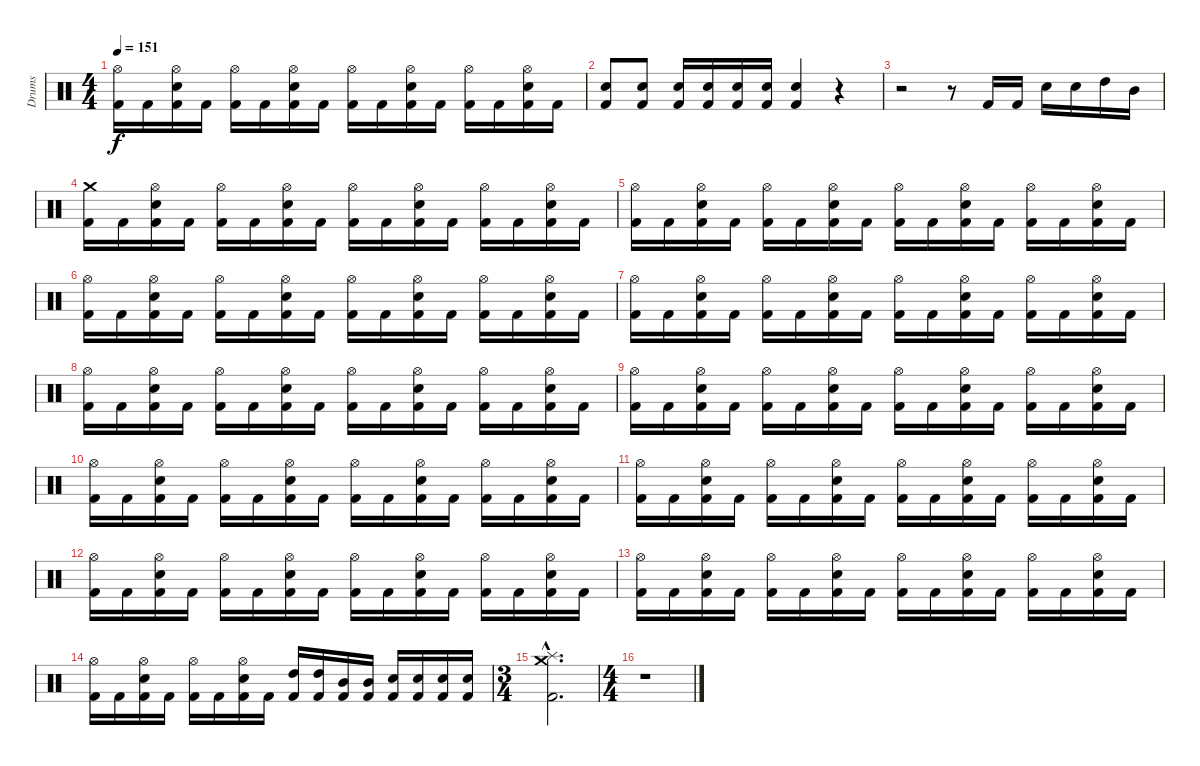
\track ("Drums" "Drums") {instrument percussion}
\staff {score}
\articulation defaults
\ts (4 4)
\tempo 151
\clef neutral
\ks c
("Kick (hit) 2" "Hi-Hat (open)").16{dy f} "Kick (hit) 2".16 ("Kick (hit) 2" "Snare (hit) 2" "Hi-Hat (open)").16 "Kick (hit) 2".16 ("Kick (hit) 2" "Hi-Hat (open)").16 "Kick (hit) 2".16 ("Kick (hit) 2" "Snare (hit) 2" "Hi-Hat (open)").16 "Kick (hit) 2".16 ("Kick (hit) 2" "Hi-Hat (open)").16 "Kick (hit) 2".16 ("Kick (hit) 2" "Snare (hit) 2" "Hi-Hat (open)").16 "Kick (hit) 2".16 ("Kick (hit) 2" "Hi-Hat (open)").16 "Kick (hit) 2".16 ("Kick (hit) 2" "Snare (hit) 2" "Hi-Hat (open)").16 "Kick (hit) 2".16 |
("Kick (hit) 2" "Snare (hit) 2").8 ("Kick (hit) 2" "Snare (hit) 2").8 ("Kick (hit) 2" "Snare (hit) 2").16 ("Kick (hit) 2" "Snare (hit) 2").16 ("Kick (hit) 2" "Snare (hit) 2").16 ("Kick (hit) 2" "Snare (hit) 2").16 ("Kick (hit) 2" "Snare (hit) 2").4 r.4 |
r.2 r.8 "Kick (hit) 2".16 "Kick (hit) 2".16 "Snare (hit) 2".16 "Snare (hit) 2".16 "High Tom (hit)".16 "Mid Tom (hit)".16 |
\section ("" "")
("Kick (hit) 2" "Crash medium (hit)").16 "Kick (hit) 2".16 ("Kick (hit) 2" "Snare (hit) 2" "Hi-Hat (open)").16 "Kick (hit) 2".16 ("Kick (hit) 2" "Hi-Hat (open)").16 "Kick (hit) 2".16 ("Kick (hit) 2" "Snare (hit) 2" "Hi-Hat (open)").16 "Kick (hit) 2".16 ("Kick (hit) 2" "Hi-Hat (open)").16 "Kick (hit) 2".16 ("Kick (hit) 2" "Snare (hit) 2" "Hi-Hat (open)").16 "Kick (hit) 2".16 ("Kick (hit) 2" "Hi-Hat (open)").16 "Kick (hit) 2".16 ("Kick (hit) 2" "Snare (hit) 2" "Hi-Hat (open)").16 "Kick (hit) 2".16 |
("Kick (hit) 2" "Hi-Hat (open)").16 "Kick (hit) 2".16 ("Kick (hit) 2" "Snare (hit) 2" "Hi-Hat (open)").16 "Kick (hit) 2".16 ("Kick (hit) 2" "Hi-Hat (open)").16 "Kick (hit) 2".16 ("Kick (hit) 2" "Snare (hit) 2" "Hi-Hat (open)").16 "Kick (hit) 2".16 ("Kick (hit) 2" "Hi-Hat (open)").16 "Kick (hit) 2".16 ("Kick (hit) 2" "Snare (hit) 2" "Hi-Hat (open)").16 "Kick (hit) 2".16 ("Kick (hit) 2" "Hi-Hat (open)").16 "Kick (hit) 2".16 ("Kick (hit) 2" "Snare (hit) 2" "Hi-Hat (open)").16 "Kick (hit) 2".16 |
("Kick (hit) 2" "Hi-Hat (open)").16 "Kick (hit) 2".16 ("Kick (hit) 2" "Snare (hit) 2" "Hi-Hat (open)").16 "Kick (hit) 2".16 ("Kick (hit) 2" "Hi-Hat (open)").16 "Kick (hit) 2".16 ("Kick (hit) 2" "Snare (hit) 2" "Hi-Hat (open)").16 "Kick (hit) 2".16 ("Kick (hit) 2" "Hi-Hat (open)").16 "Kick (hit) 2".16 ("Kick (hit) 2" "Snare (hit) 2" "Hi-Hat (open)").16 "Kick (hit) 2".16 ("Kick (hit) 2" "Hi-Hat (open)").16 "Kick (hit) 2".16 ("Kick (hit) 2" "Snare (hit) 2" "Hi-Hat (open)").16 "Kick (hit) 2".16 |
("Kick (hit) 2" "Hi-Hat (open)").16 "Kick (hit) 2".16 ("Kick (hit) 2" "Snare (hit) 2" "Hi-Hat (open)").16 "Kick (hit) 2".16 ("Kick (hit) 2" "Hi-Hat (open)").16 "Kick (hit) 2".16 ("Kick (hit) 2" "Snare (hit) 2" "Hi-Hat (open)").16 "Kick (hit) 2".16 ("Kick (hit) 2" "Hi-Hat (open)").16 "Kick (hit) 2".16 ("Kick (hit) 2" "Snare (hit) 2" "Hi-Hat (open)").16 "Kick (hit) 2".16 ("Kick (hit) 2" "Hi-Hat (open)").16 "Kick (hit) 2".16 ("Kick (hit) 2" "Snare (hit) 2" "Hi-Hat (open)").16 "Kick (hit) 2".16 |
("Kick (hit) 2" "Hi-Hat (open)").16 "Kick (hit) 2".16 ("Kick (hit) 2" "Snare (hit) 2" "Hi-Hat (open)").16 "Kick (hit) 2".16 ("Kick (hit) 2" "Hi-Hat (open)").16 "Kick (hit) 2".16 ("Kick (hit) 2" "Snare (hit) 2" "Hi-Hat (open)").16 "Kick (hit) 2".16 ("Kick (hit) 2" "Hi-Hat (open)").16 "Kick (hit) 2".16 ("Kick (hit) 2" "Snare (hit) 2" "Hi-Hat (open)").16 "Kick (hit) 2".16 ("Kick (hit) 2" "Hi-Hat (open)").16 "Kick (hit) 2".16 ("Kick (hit) 2" "Snare (hit) 2" "Hi-Hat (open)").16 "Kick (hit) 2".16 |
("Kick (hit) 2" "Hi-Hat (open)").16 "Kick (hit) 2".16 ("Kick (hit) 2" "Snare (hit) 2" "Hi-Hat (open)").16 "Kick (hit) 2".16 ("Kick (hit) 2" "Hi-Hat (open)").16 "Kick (hit) 2".16 ("Kick (hit) 2" "Snare (hit) 2" "Hi-Hat (open)").16 "Kick (hit) 2".16 ("Kick (hit) 2" "Hi-Hat (open)").16 "Kick (hit) 2".16 ("Kick (hit) 2" "Snare (hit) 2" "Hi-Hat (open)").16 "Kick (hit) 2".16 ("Kick (hit) 2" "Hi-Hat (open)").16 "Kick (hit) 2".16 ("Kick (hit) 2" "Snare (hit) 2" "Hi-Hat (open)").16 "Kick (hit) 2".16 |
("Kick (hit) 2" "Hi-Hat (open)").16 "Kick (hit) 2".16 ("Kick (hit) 2" "Snare (hit) 2" "Hi-Hat (open)").16 "Kick (hit) 2".16 ("Kick (hit) 2" "Hi-Hat (open)").16 "Kick (hit) 2".16 ("Kick (hit) 2" "Snare (hit) 2" "Hi-Hat (open)").16 "Kick (hit) 2".16 ("Kick (hit) 2" "Hi-Hat (open)").16 "Kick (hit) 2".16 ("Kick (hit) 2" "Snare (hit) 2" "Hi-Hat (open)").16 "Kick (hit) 2".16 ("Kick (hit) 2" "Hi-Hat (open)").16 "Kick (hit) 2".16 ("Kick (hit) 2" "Snare (hit) 2" "Hi-Hat (open)").16 "Kick (hit) 2".16 |
("Kick (hit) 2" "Hi-Hat (open)").16 "Kick (hit) 2".16 ("Kick (hit) 2" "Snare (hit) 2" "Hi-Hat (open)").16 "Kick (hit) 2".16 ("Kick (hit) 2" "Hi-Hat (open)").16 "Kick (hit) 2".16 ("Kick (hit) 2" "Snare (hit) 2" "Hi-Hat (open)").16 "Kick (hit) 2".16 ("Kick (hit) 2" "Hi-Hat (open)").16 "Kick (hit) 2".16 ("Kick (hit) 2" "Snare (hit) 2" "Hi-Hat (open)").16 "Kick (hit) 2".16 ("Kick (hit) 2" "Hi-Hat (open)").16 "Kick (hit) 2".16 ("Kick (hit) 2" "Snare (hit) 2" "Hi-Hat (open)").16 "Kick (hit) 2".16 |
\section ("" "")
("Kick (hit) 2" "Hi-Hat (open)").16 "Kick (hit) 2".16 ("Kick (hit) 2" "Snare (hit) 2" "Hi-Hat (open)").16 "Kick (hit) 2".16 ("Kick (hit) 2" "Hi-Hat (open)").16 "Kick (hit) 2".16 ("Kick (hit) 2" "Snare (hit) 2" "Hi-Hat (open)").16 "Kick (hit) 2".16 ("Kick (hit) 2" "Hi-Hat (open)").16 "Kick (hit) 2".16 ("Kick (hit) 2" "Snare (hit) 2" "Hi-Hat (open)").16 "Kick (hit) 2".16 ("Kick (hit) 2" "Hi-Hat (open)").16 "Kick (hit) 2".16 ("Kick (hit) 2" "Snare (hit) 2" "Hi-Hat (open)").16 "Kick (hit) 2".16 |
("Kick (hit) 2" "Hi-Hat (open)").16 "Kick (hit) 2".16 ("Kick (hit) 2" "Snare (hit) 2" "Hi-Hat (open)").16 "Kick (hit) 2".16 ("Kick (hit) 2" "Hi-Hat (open)").16 "Kick (hit) 2".16 ("Kick (hit) 2" "Snare (hit) 2" "Hi-Hat (open)").16 "Kick (hit) 2".16 ("Kick (hit) 2" "Hi-Hat (open)").16 "Kick (hit) 2".16 ("Kick (hit) 2" "Snare (hit) 2" "Hi-Hat (open)").16 "Kick (hit) 2".16 ("Kick (hit) 2" "Hi-Hat (open)").16 "Kick (hit) 2".16 ("Kick (hit) 2" "Snare (hit) 2" "Hi-Hat (open)").16 "Kick (hit) 2".16 |
("Kick (hit) 2" "Hi-Hat (open)").16 "Kick (hit) 2".16 ("Kick (hit) 2" "Snare (hit) 2" "Hi-Hat (open)").16 "Kick (hit) 2".16 ("Kick (hit) 2" "Hi-Hat (open)").16 "Kick (hit) 2".16 ("Kick (hit) 2" "Snare (hit) 2" "Hi-Hat (open)").16 "Kick (hit) 2".16 ("Kick (hit) 2" "High Tom (hit)").16 ("Kick (hit) 2" "High Tom (hit)").16 ("Kick (hit) 2" "Mid Tom (hit)").16 ("Kick (hit) 2" "Mid Tom (hit)").16 ("Kick (hit) 2" "Snare (hit) 2").16 ("Kick (hit) 2" "Snare (hit) 2").16 ("Kick (hit) 2" "Snare (hit) 2").16 ("Kick (hit) 2" "Snare (hit) 2").16 |
\ts (3 4)
("Kick (hit) 2"{hac} "Splash (hit)"{hac} "Crash medium (hit)"{hac}).2{d} |
\ts (4 4)
r.1
